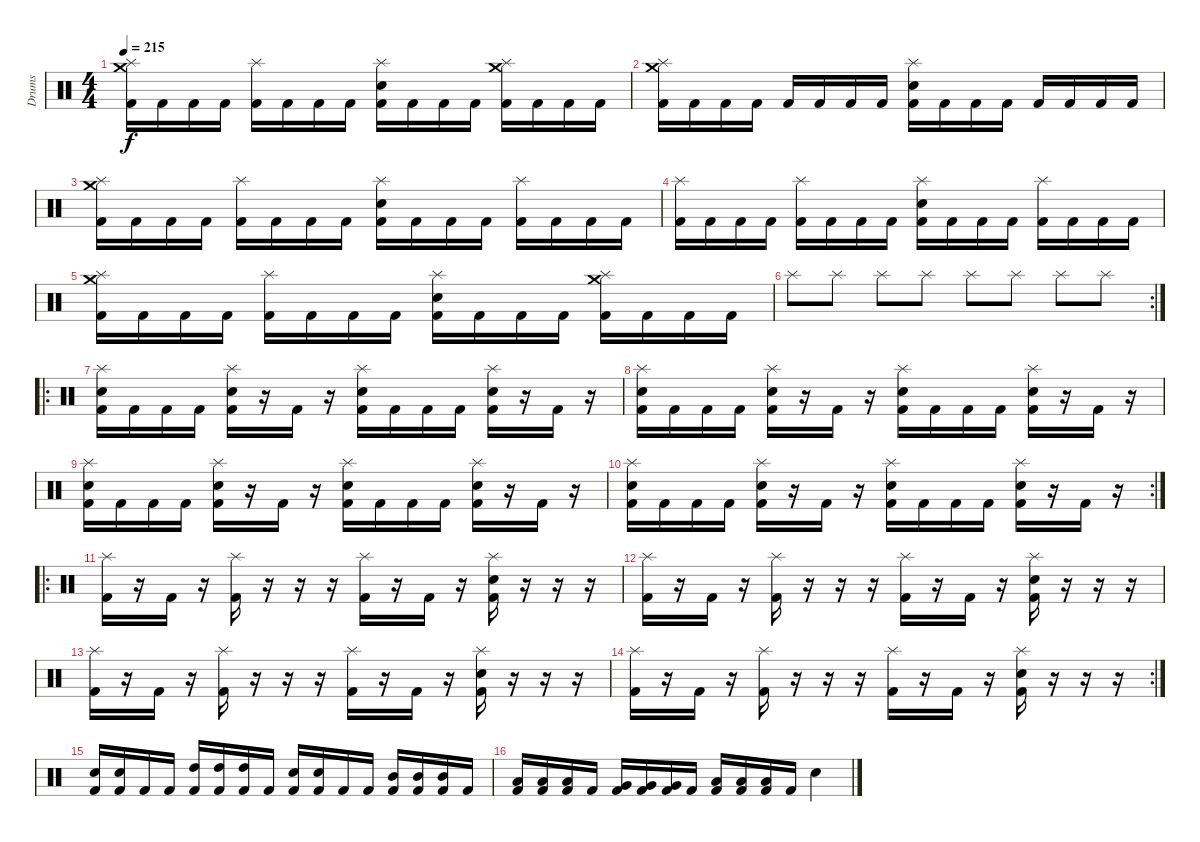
\track ("Drums" "Drums") {instrument percussion}
\staff {score}
\articulation defaults
\ts (4 4)
\tempo 215
\clef neutral
\ks c
("Crash medium (hit)" "Splash (hit)" "Kick (hit) 2").16{dy f} "Kick (hit) 2".16 "Kick (hit) 2".16 "Kick (hit) 2".16 ("Splash (hit)" "Kick (hit) 2").16 "Kick (hit) 2".16 "Kick (hit) 2".16 "Kick (hit) 2".16 ("Splash (hit)" "Electric Snare (hit)" "Kick (hit) 2").16 "Kick (hit) 2".16 "Kick (hit) 2".16 "Kick (hit) 2".16 ("Crash medium (hit)" "Splash (hit)" "Kick (hit) 2").16 "Kick (hit) 2".16 "Kick (hit) 2".16 "Kick (hit) 2".16 |
("Crash medium (hit)" "Splash (hit)" "Kick (hit) 2").16 "Kick (hit) 2".16 "Kick (hit) 2".16 "Kick (hit) 2".16 "Kick (hit) 2".16 "Kick (hit) 2".16 "Kick (hit) 2".16 "Kick (hit) 2".16 ("Splash (hit)" "Electric Snare (hit)" "Kick (hit) 2").16 "Kick (hit) 2".16 "Kick (hit) 2".16 "Kick (hit) 2".16 "Kick (hit) 2".16 "Kick (hit) 2".16 "Kick (hit) 2".16 "Kick (hit) 2".16 |
("Crash medium (hit)" "Splash (hit)" "Kick (hit) 2").16 "Kick (hit) 2".16 "Kick (hit) 2".16 "Kick (hit) 2".16 ("Splash (hit)" "Kick (hit) 2").16 "Kick (hit) 2".16 "Kick (hit) 2".16 "Kick (hit) 2".16 ("Splash (hit)" "Electric Snare (hit)" "Kick (hit) 2").16 "Kick (hit) 2".16 "Kick (hit) 2".16 "Kick (hit) 2".16 ("Splash (hit)" "Kick (hit) 2").16 "Kick (hit) 2".16 "Kick (hit) 2".16 "Kick (hit) 2".16 |
("Splash (hit)" "Kick (hit) 2").16 "Kick (hit) 2".16 "Kick (hit) 2".16 "Kick (hit) 2".16 ("Splash (hit)" "Kick (hit) 2").16 "Kick (hit) 2".16 "Kick (hit) 2".16 "Kick (hit) 2".16 ("Splash (hit)" "Electric Snare (hit)" "Kick (hit) 2").16 "Kick (hit) 2".16 "Kick (hit) 2".16 "Kick (hit) 2".16 ("Splash (hit)" "Kick (hit) 2").16 "Kick (hit) 2".16 "Kick (hit) 2".16 "Kick (hit) 2".16 |
("Crash medium (hit)" "Splash (hit)" "Kick (hit) 2").16 "Kick (hit) 2".16 "Kick (hit) 2".16 "Kick (hit) 2".16 ("Splash (hit)" "Kick (hit) 2").16 "Kick (hit) 2".16 "Kick (hit) 2".16 "Kick (hit) 2".16 ("Splash (hit)" "Electric Snare (hit)" "Kick (hit) 2").16 "Kick (hit) 2".16 "Kick (hit) 2".16 "Kick (hit) 2".16 ("Crash medium (hit)" "Splash (hit)" "Kick (hit) 2").16 "Kick (hit) 2".16 "Kick (hit) 2".16 "Kick (hit) 2".16 |
\rc 2 "Splash (hit)".8 "Splash (hit)".8 "Splash (hit)".8 "Splash (hit)".8 "Splash (hit)".8 "Splash (hit)".8 "Splash (hit)".8 "Splash (hit)".8
|
\ro
("Splash (hit)" "Electric Snare (hit)" "Kick (hit) 2").16 "Kick (hit) 2".16 "Kick (hit) 2".16 "Kick (hit) 2".16 ("Splash (hit)" "Electric Snare (hit)" "Kick (hit) 2").16 r.16 "Kick (hit) 2".16 r.16 ("Splash (hit)" "Electric Snare (hit)" "Kick (hit) 2").16 "Kick (hit) 2".16 "Kick (hit) 2".16 "Kick (hit) 2".16 ("Splash (hit)" "Electric Snare (hit)" "Kick (hit) 2").16 r.16 "Kick (hit) 2".16 r.16 |
("Splash (hit)" "Electric Snare (hit)" "Kick (hit) 2").16 "Kick (hit) 2".16 "Kick (hit) 2".16 "Kick (hit) 2".16 ("Splash (hit)" "Electric Snare (hit)" "Kick (hit) 2").16 r.16 "Kick (hit) 2".16 r.16 ("Splash (hit)" "Electric Snare (hit)" "Kick (hit) 2").16 "Kick (hit) 2".16 "Kick (hit) 2".16 "Kick (hit) 2".16 ("Splash (hit)" "Electric Snare (hit)" "Kick (hit) 2").16 r.16 "Kick (hit) 2".16 r.16 |
("Splash (hit)" "Electric Snare (hit)" "Kick (hit) 2").16 "Kick (hit) 2".16 "Kick (hit) 2".16 "Kick (hit) 2".16 ("Splash (hit)" "Electric Snare (hit)" "Kick (hit) 2").16 r.16 "Kick (hit) 2".16 r.16 ("Splash (hit)" "Electric Snare (hit)" "Kick (hit) 2").16 "Kick (hit) 2".16 "Kick (hit) 2".16 "Kick (hit) 2".16 ("Splash (hit)" "Electric Snare (hit)" "Kick (hit) 2").16 r.16 "Kick (hit) 2".16 r.16 |
\rc 2
("Splash (hit)" "Electric Snare (hit)" "Kick (hit) 2").16 "Kick (hit) 2".16 "Kick (hit) 2".16 "Kick (hit) 2".16 ("Splash (hit)" "Electric Snare (hit)" "Kick (hit) 2").16 r.16 "Kick (hit) 2".16 r.16 ("Splash (hit)" "Electric Snare (hit)" "Kick (hit) 2").16 "Kick (hit) 2".16 "Kick (hit) 2".16 "Kick (hit) 2".16 ("Splash (hit)" "Electric Snare (hit)" "Kick (hit) 2").16 r.16 "Kick (hit) 2".16 r.16 |
\ro
("Splash (hit)" "Kick (hit) 2").16 r.16 "Kick (hit) 2".16 r.16 ("Splash (hit)" "Kick (hit) 2").16 r.16 r.16 r.16 ("Splash (hit)" "Kick (hit) 2").16 r.16 "Kick (hit) 2".16 r.16 ("Splash (hit)" "Electric Snare (hit)" "Kick (hit) 2").16 r.16 r.16 r.16 |
("Splash (hit)" "Kick (hit) 2").16 r.16 "Kick (hit) 2".16 r.16 ("Splash (hit)" "Kick (hit) 2").16 r.16 r.16 r.16 ("Splash (hit)" "Kick (hit) 2").16 r.16 "Kick (hit) 2".16 r.16 ("Splash (hit)" "Electric Snare (hit)" "Kick (hit) 2").16 r.16 r.16 r.16 |
("Splash (hit)" "Kick (hit) 2").16 r.16 "Kick (hit) 2".16 r.16 ("Splash (hit)" "Kick (hit) 2").16 r.16 r.16 r.16 ("Splash (hit)" "Kick (hit) 2").16 r.16 "Kick (hit) 2".16 r.16 ("Splash (hit)" "Electric Snare (hit)" "Kick (hit) 2").16 r.16 r.16 r.16 |
\rc 2
("Splash (hit)" "Kick (hit) 2").16 r.16 "Kick (hit) 2".16 r.16 ("Splash (hit)" "Kick (hit) 2").16 r.16 r.16 r.16 ("Splash (hit)" "Kick (hit) 2").16 r.16 "Kick (hit) 2".16 r.16 ("Splash (hit)" "Electric Snare (hit)" "Kick (hit) 2").16 r.16 r.16 r.16 |
("Electric Snare (hit)" "Kick (hit) 2").16 ("Electric Snare (hit)" "Kick (hit) 2").16 "Kick (hit) 2".16 "Kick (hit) 2".16 ("High Tom (hit)" "Kick (hit) 2").16 ("High Tom (hit)" "Kick (hit) 2").16 ("High Tom (hit)" "Kick (hit) 2").16 "Kick (hit) 2".16 ("Electric Snare (hit)" "Kick (hit) 2").16 ("Electric Snare (hit)" "Kick (hit) 2").16 "Kick (hit) 2".16 "Kick (hit) 2".16 ("Mid Tom (hit)" "Kick (hit) 2").16 ("Mid Tom (hit)" "Kick (hit) 2").16 ("Mid Tom (hit)" "Kick (hit) 2").16 "Kick (hit) 2".16 |
("Low Tom (hit)" "Kick (hit) 2").16 ("Low Tom (hit)" "Kick (hit) 2").16 ("Low Tom (hit)" "Kick (hit) 2").16 "Kick (hit) 2".16 ("Very Low Tom (hit)" "Kick (hit) 2").16 ("Very Low Tom (hit)" "Kick (hit) 2").16 ("Very Low Tom (hit)" "Kick (hit) 2").16 "Kick (hit) 2".16 ("Low Floor Tom (hit)" "Kick (hit) 2").16 ("Low Floor Tom (hit)" "Kick (hit) 2").16 ("Low Floor Tom (hit)" "Kick (hit) 2").16 "Kick (hit) 2".16 "Electric Snare (hit)".4
